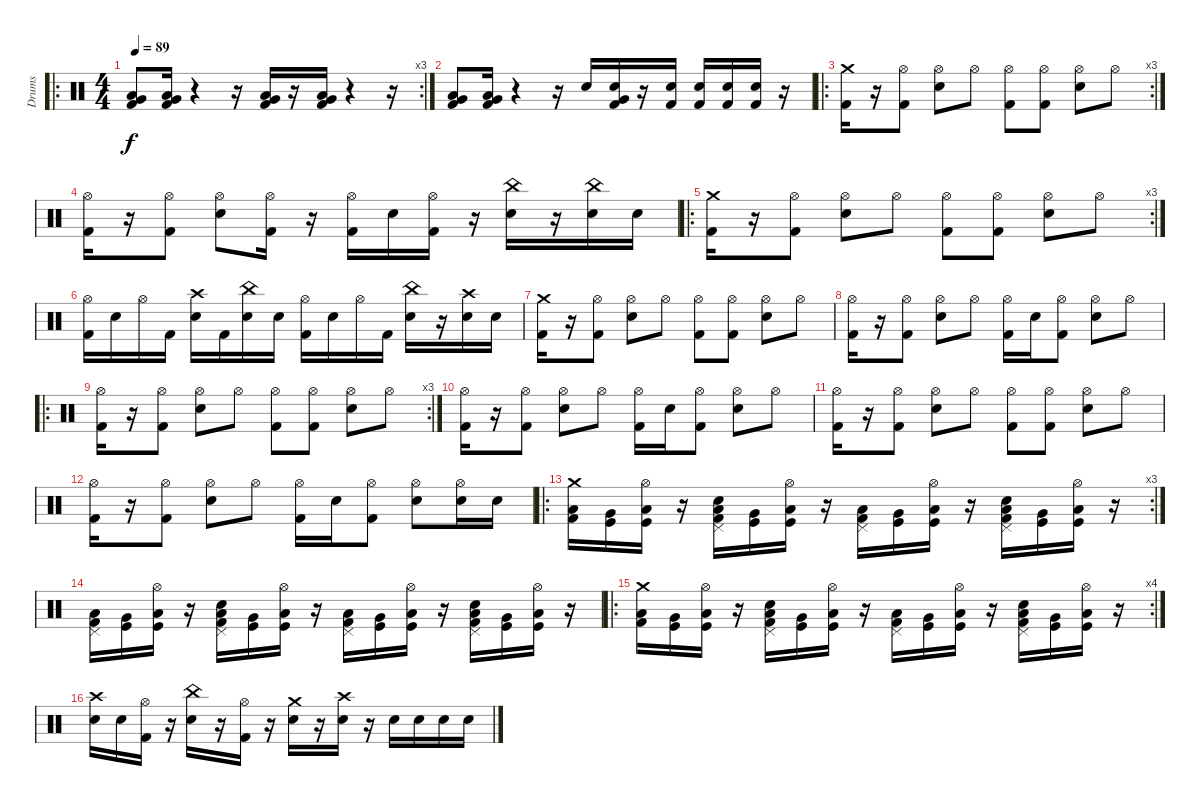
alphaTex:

\track ("Drums" "Drums") {instrument percussion}
\staff {score}
\articulation defaults
\ro
\rc 3
\ts (4 4)
\tempo 89
\clef neutral
\ks c
("Very Low Tom (hit)" "Low Tom (hit)" "Kick (hit) 2").8{dy f} ("Low Tom (hit)" "Very Low Tom (hit)" "Kick (hit) 2").16 r.4 r.16 ("Low Tom (hit)" "Very Low Tom (hit)" "Kick (hit) 2").16 r.16 ("Low Tom (hit)" "Very Low Tom (hit)" "Kick (hit) 2").16 r.4 r.16 |
("Very Low Tom (hit)" "Low Tom (hit)" "Kick (hit) 2").8 ("Low Tom (hit)" "Very Low Tom (hit)" "Kick (hit) 2").16 r.4 r.16 "Snare (hit) 2".16 ("Very Low Tom (hit)" "Kick (hit) 2" "Snare (hit) 2").16 r.16 ("Kick (hit) 2" "Snare (hit) 2").16 ("Kick (hit) 2" "Snare (hit) 2").16 ("Kick (hit) 2" "Snare (hit) 2").16 ("Kick (hit) 2" "Snare (hit) 2").16 r.16 |
\ro
\rc 3
("Kick (hit) 2" "Crash medium (hit)").16 r.16 ("Hi-Hat (open)" "Kick (hit) 2").8 ("Hi-Hat (open)" "Snare (hit) 2").8 "Hi-Hat (open)".8 ("Kick (hit) 2" "Hi-Hat (open)").8 ("Kick (hit) 2" "Hi-Hat (open)").8 ("Snare (hit) 2" "Hi-Hat (open)").8 "Hi-Hat (open)".8 |
("Kick (hit) 2" "Hi-Hat (open)").16 r.16 ("Kick (hit) 2" "Hi-Hat (open)").8 ("Electric Snare (hit)" "Hi-Hat (open)").8 ("Kick (hit) 2" "Hi-Hat (open)").16 r.16 ("Hi-Hat (open)" "Kick (hit) 2").16 "Snare (hit) 2".16 ("Hi-Hat (open)" "Kick (hit) 2").16 r.16 ("China (hit)" "Snare (hit) 2").16 r.16 ("China (hit)" "Snare (hit) 2").16 "Snare (hit) 2".16 |
\ro
\rc 3
("Kick (hit) 2" "Crash medium (hit)").16 r.16 ("Hi-Hat (open)" "Kick (hit) 2").8 ("Hi-Hat (open)" "Snare (hit) 2").8 "Hi-Hat (open)".8 ("Kick (hit) 2" "Hi-Hat (open)").8 ("Kick (hit) 2" "Hi-Hat (open)").8 ("Snare (hit) 2" "Hi-Hat (open)").8 "Hi-Hat (open)".8 |
("Kick (hit) 2" "Hi-Hat (open)").16 "Snare (hit) 2".16 "Hi-Hat (open)".16 "Kick (hit) 2".16 ("Crash high (hit)" "Snare (hit) 2").16 "Kick (hit) 2".16 ("Snare (hit) 2" "China (hit)").16 "Snare (hit) 2".16 ("Kick (hit) 2" "Hi-Hat (open)").16 "Snare (hit) 2".16 "Hi-Hat (open)".16 "Kick (hit) 2".16 ("Snare (hit) 2" "China (hit)").16 r.16 ("Crash high (hit)" "Snare (hit) 2").16 "Snare (hit) 2".16 |
("Kick (hit) 2" "Crash medium (hit)").16 r.16 ("Kick (hit) 2" "Hi-Hat (open)").8 ("Hi-Hat (open)" "Snare (hit) 2").8 "Hi-Hat (open)".8 ("Hi-Hat (open)" "Kick (hit) 2").8 ("Kick (hit) 2" "Hi-Hat (open)").8 ("Hi-Hat (open)" "Snare (hit) 2").8 "Hi-Hat (open)".8 |
("Kick (hit) 2" "Hi-Hat (open)").16 r.16 ("Kick (hit) 2" "Hi-Hat (open)").8 ("Snare (hit) 2" "Hi-Hat (open)").8 "Hi-Hat (open)".8 ("Kick (hit) 2" "Hi-Hat (open)").16 "Snare (hit) 2".16 ("Kick (hit) 2" "Hi-Hat (open)").8 ("Snare (hit) 2" "Hi-Hat (open)").8 "Hi-Hat (open)".8 |
\ro
\rc 3
("Kick (hit) 2" "Hi-Hat (open)").16 r.16 ("Kick (hit) 2" "Hi-Hat (open)").8 ("Snare (hit) 2" "Hi-Hat (open)").8 "Hi-Hat (open)".8 ("Kick (hit) 2" "Hi-Hat (open)").8 ("Kick (hit) 2" "Hi-Hat (open)").8 ("Snare (hit) 2" "Hi-Hat (open)").8 "Hi-Hat (open)".8 |
("Kick (hit) 2" "Hi-Hat (open)").16 r.16 ("Kick (hit) 2" "Hi-Hat (open)").8 ("Snare (hit) 2" "Hi-Hat (open)").8 "Hi-Hat (open)".8 ("Kick (hit) 2" "Hi-Hat (open)").16 "Snare (hit) 2".16 ("Kick (hit) 2" "Hi-Hat (open)").8 ("Snare (hit) 2" "Hi-Hat (open)").8 "Hi-Hat (open)".8 |
("Kick (hit) 2" "Hi-Hat (open)").16 r.16 ("Kick (hit) 2" "Hi-Hat (open)").8 ("Snare (hit) 2" "Hi-Hat (open)").8 "Hi-Hat (open)".8 ("Kick (hit) 2" "Hi-Hat (open)").8 ("Kick (hit) 2" "Hi-Hat (open)").8 ("Snare (hit) 2" "Hi-Hat (open)").8 "Hi-Hat (open)".8 |
("Kick (hit) 2" "Hi-Hat (open)").16 r.16 ("Kick (hit) 2" "Hi-Hat (open)").8 ("Snare (hit) 2" "Hi-Hat (open)").8 "Hi-Hat (open)".8 ("Kick (hit) 2" "Hi-Hat (open)").16 "Snare (hit) 2".16 ("Kick (hit) 2" "Hi-Hat (open)").8 ("Snare (hit) 2" "Hi-Hat (open)").8 ("Snare (hit) 2" "Hi-Hat (open)").16 "Snare (hit) 2".16 |
\ro
\rc 3
("Kick (hit) 2" "Crash medium (hit)" "Low Tom (hit)").16 ("Very Low Tom (hit)" "Kick (hit)").16 ("Hi-Hat (open)" "Low Floor Tom (hit)" "Kick (hit)").16 r.16 ("Kick (hit) 2" "Pedal Hi-Hat (hit)" "Snare (hit) 2" "Low Tom (hit)").16 ("Kick (hit)" "Very Low Tom (hit)").16 ("Hi-Hat (open)" "Kick (hit)" "Low Floor Tom (hit)").16 r.16 ("Pedal Hi-Hat (hit)" "Kick (hit) 2" "Low Tom (hit)").16 ("Kick (hit)" "Very Low Tom (hit)").16 ("Hi-Hat (open)" "Kick (hit)" "Low Floor Tom (hit)").16 r.16 ("Kick (hit) 2" "Pedal Hi-Hat (hit)" "Snare (hit) 2" "Low Tom (hit)").16 ("Kick (hit)" "Very Low Tom (hit)").16 ("Hi-Hat (open)" "Kick (hit)" "Low Floor Tom (hit)").16 r.16 |
("Kick (hit) 2" "Pedal Hi-Hat (hit)" "Low Tom (hit)").16 ("Kick (hit)" "Very Low Tom (hit)").16 ("Hi-Hat (open)" "Kick (hit)" "Low Floor Tom (hit)").16 r.16 ("Kick (hit) 2" "Pedal Hi-Hat (hit)" "Snare (hit) 2" "Low Tom (hit)").16 ("Kick (hit)" "Very Low Tom (hit)").16 ("Hi-Hat (open)" "Kick (hit)" "Low Floor Tom (hit)").16 r.16 ("Pedal Hi-Hat (hit)" "Kick (hit) 2" "Low Tom (hit)").16 ("Kick (hit)" "Very Low Tom (hit)").16 ("Hi-Hat (open)" "Kick (hit)" "Low Floor Tom (hit)").16 r.16 ("Kick (hit) 2" "Pedal Hi-Hat (hit)" "Snare (hit) 2" "Low Tom (hit)").16 ("Kick (hit)" "Very Low Tom (hit)").16 ("Hi-Hat (open)" "Kick (hit)" "Low Floor Tom (hit)").16 r.16 |
\ro
\rc 4
("Kick (hit) 2" "Crash medium (hit)" "Low Tom (hit)").16 ("Kick (hit)" "Very Low Tom (hit)").16 ("Hi-Hat (open)" "Kick (hit)" "Low Floor Tom (hit)").16 r.16 ("Kick (hit) 2" "Pedal Hi-Hat (hit)" "Snare (hit) 2" "Low Tom (hit)").16 ("Kick (hit)" "Very Low Tom (hit)").16 ("Hi-Hat (open)" "Kick (hit)" "Low Floor Tom (hit)").16 r.16 ("Pedal Hi-Hat (hit)" "Kick (hit) 2" "Low Tom (hit)").16 ("Kick (hit)" "Very Low Tom (hit)").16 ("Hi-Hat (open)" "Kick (hit)" "Low Floor Tom (hit)").16 r.16 ("Kick (hit) 2" "Pedal Hi-Hat (hit)" "Snare (hit) 2" "Low Tom (hit)").16 ("Kick (hit)" "Very Low Tom (hit)").16 ("Hi-Hat (open)" "Kick (hit)" "Low Floor Tom (hit)").16 r.16 |
("Snare (hit) 2" "Crash high (hit)").16 "Snare (hit) 2".16 ("Hi-Hat (open)" "Kick (hit) 2").16 r.16 ("China (hit)" "Snare (hit) 2").16 r.16 ("Hi-Hat (open)" "Kick (hit) 2").16 r.16 ("Crash medium (hit)" "Snare (hit) 2").16 r.16 ("Crash high (hit)" "Snare (hit) 2").16 r.16 "Snare (hit) 2".16 "Snare (hit) 2".16 "Snare (hit) 2".16 "Snare (hit) 2".16
